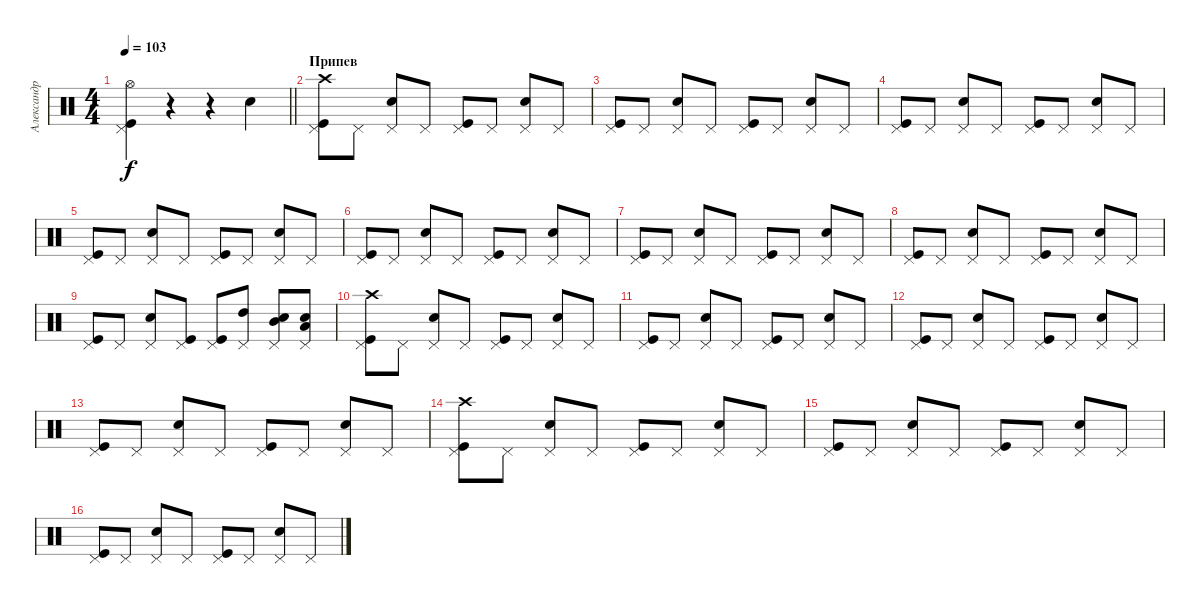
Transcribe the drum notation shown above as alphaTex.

\track ("Александр Ерохин (ударные)" "Александр ") {instrument percussion}
\staff {score}
\articulation defaults
\ts (4 4)
\tempo 103
\clef neutral
\barLineRight lightlight
\ks c
("Kick (hit)" "Pedal Hi-Hat (hit)" "Hi-Hat (open)").4{dy f} r.4 r.4 "Snare (hit) 2".4 |
\section ("" "Припев")
("Kick (hit)" "Pedal Hi-Hat (hit)" "Crash high (hit)").8 "Pedal Hi-Hat (hit)".8 ("Pedal Hi-Hat (hit)" "Snare (hit) 2").8 "Pedal Hi-Hat (hit)".8 ("Kick (hit)" "Pedal Hi-Hat (hit)").8 "Pedal Hi-Hat (hit)".8 ("Pedal Hi-Hat (hit)" "Snare (hit) 2").8 "Pedal Hi-Hat (hit)".8 |
("Kick (hit)" "Pedal Hi-Hat (hit)").8 "Pedal Hi-Hat (hit)".8 ("Pedal Hi-Hat (hit)" "Snare (hit) 2").8 "Pedal Hi-Hat (hit)".8 ("Kick (hit)" "Pedal Hi-Hat (hit)").8 "Pedal Hi-Hat (hit)".8 ("Pedal Hi-Hat (hit)" "Snare (hit) 2").8 "Pedal Hi-Hat (hit)".8 |
("Kick (hit)" "Pedal Hi-Hat (hit)").8 "Pedal Hi-Hat (hit)".8 ("Pedal Hi-Hat (hit)" "Snare (hit) 2").8 "Pedal Hi-Hat (hit)".8 ("Kick (hit)" "Pedal Hi-Hat (hit)").8 "Pedal Hi-Hat (hit)".8 ("Pedal Hi-Hat (hit)" "Snare (hit) 2").8 "Pedal Hi-Hat (hit)".8 |
("Kick (hit)" "Pedal Hi-Hat (hit)").8 "Pedal Hi-Hat (hit)".8 ("Pedal Hi-Hat (hit)" "Snare (hit) 2").8 "Pedal Hi-Hat (hit)".8 ("Kick (hit)" "Pedal Hi-Hat (hit)").8 "Pedal Hi-Hat (hit)".8 ("Pedal Hi-Hat (hit)" "Snare (hit) 2").8 "Pedal Hi-Hat (hit)".8 |
("Kick (hit)" "Pedal Hi-Hat (hit)").8 "Pedal Hi-Hat (hit)".8 ("Pedal Hi-Hat (hit)" "Snare (hit) 2").8 "Pedal Hi-Hat (hit)".8 ("Kick (hit)" "Pedal Hi-Hat (hit)").8 "Pedal Hi-Hat (hit)".8 ("Pedal Hi-Hat (hit)" "Snare (hit) 2").8 "Pedal Hi-Hat (hit)".8 |
("Kick (hit)" "Pedal Hi-Hat (hit)").8 "Pedal Hi-Hat (hit)".8 ("Pedal Hi-Hat (hit)" "Snare (hit) 2").8 "Pedal Hi-Hat (hit)".8 ("Kick (hit)" "Pedal Hi-Hat (hit)").8 "Pedal Hi-Hat (hit)".8 ("Pedal Hi-Hat (hit)" "Snare (hit) 2").8 "Pedal Hi-Hat (hit)".8 |
("Kick (hit)" "Pedal Hi-Hat (hit)").8 "Pedal Hi-Hat (hit)".8 ("Pedal Hi-Hat (hit)" "Snare (hit) 2").8 "Pedal Hi-Hat (hit)".8 ("Kick (hit)" "Pedal Hi-Hat (hit)").8 "Pedal Hi-Hat (hit)".8 ("Pedal Hi-Hat (hit)" "Snare (hit) 2").8 "Pedal Hi-Hat (hit)".8 |
("Kick (hit)" "Pedal Hi-Hat (hit)").8 "Pedal Hi-Hat (hit)".8 ("Pedal Hi-Hat (hit)" "Snare (hit) 2").8 ("Kick (hit)" "Pedal Hi-Hat (hit)").8 ("Kick (hit)" "Pedal Hi-Hat (hit)").8 ("Pedal Hi-Hat (hit)" "High Tom (hit)").8 ("Pedal Hi-Hat (hit)" "Snare (hit) 2" "Mid Tom (hit)").8 ("Pedal Hi-Hat (hit)" "Snare (hit) 2" "Low Tom (hit)").8 |
("Kick (hit)" "Pedal Hi-Hat (hit)" "Crash high (hit)").8 "Pedal Hi-Hat (hit)".8 ("Pedal Hi-Hat (hit)" "Snare (hit) 2").8 "Pedal Hi-Hat (hit)".8 ("Kick (hit)" "Pedal Hi-Hat (hit)").8 "Pedal Hi-Hat (hit)".8 ("Pedal Hi-Hat (hit)" "Snare (hit) 2").8 "Pedal Hi-Hat (hit)".8 |
("Kick (hit)" "Pedal Hi-Hat (hit)").8 "Pedal Hi-Hat (hit)".8 ("Pedal Hi-Hat (hit)" "Snare (hit) 2").8 "Pedal Hi-Hat (hit)".8 ("Kick (hit)" "Pedal Hi-Hat (hit)").8 "Pedal Hi-Hat (hit)".8 ("Pedal Hi-Hat (hit)" "Snare (hit) 2").8 "Pedal Hi-Hat (hit)".8 |
("Kick (hit)" "Pedal Hi-Hat (hit)").8 "Pedal Hi-Hat (hit)".8 ("Pedal Hi-Hat (hit)" "Snare (hit) 2").8 "Pedal Hi-Hat (hit)".8 ("Kick (hit)" "Pedal Hi-Hat (hit)").8 "Pedal Hi-Hat (hit)".8 ("Pedal Hi-Hat (hit)" "Snare (hit) 2").8 "Pedal Hi-Hat (hit)".8 |
("Kick (hit)" "Pedal Hi-Hat (hit)").8 "Pedal Hi-Hat (hit)".8 ("Pedal Hi-Hat (hit)" "Snare (hit) 2").8 "Pedal Hi-Hat (hit)".8 ("Kick (hit)" "Pedal Hi-Hat (hit)").8 "Pedal Hi-Hat (hit)".8 ("Pedal Hi-Hat (hit)" "Snare (hit) 2").8 "Pedal Hi-Hat (hit)".8 |
("Kick (hit)" "Pedal Hi-Hat (hit)" "Crash high (hit)").8 "Pedal Hi-Hat (hit)".8 ("Pedal Hi-Hat (hit)" "Snare (hit) 2").8 "Pedal Hi-Hat (hit)".8 ("Kick (hit)" "Pedal Hi-Hat (hit)").8 "Pedal Hi-Hat (hit)".8 ("Pedal Hi-Hat (hit)" "Snare (hit) 2").8 "Pedal Hi-Hat (hit)".8 |
("Kick (hit)" "Pedal Hi-Hat (hit)").8 "Pedal Hi-Hat (hit)".8 ("Pedal Hi-Hat (hit)" "Snare (hit) 2").8 "Pedal Hi-Hat (hit)".8 ("Kick (hit)" "Pedal Hi-Hat (hit)").8 "Pedal Hi-Hat (hit)".8 ("Pedal Hi-Hat (hit)" "Snare (hit) 2").8 "Pedal Hi-Hat (hit)".8 |
("Kick (hit)" "Pedal Hi-Hat (hit)").8 "Pedal Hi-Hat (hit)".8 ("Pedal Hi-Hat (hit)" "Snare (hit) 2").8 "Pedal Hi-Hat (hit)".8 ("Kick (hit)" "Pedal Hi-Hat (hit)").8 "Pedal Hi-Hat (hit)".8 ("Pedal Hi-Hat (hit)" "Snare (hit) 2").8 "Pedal Hi-Hat (hit)".8
